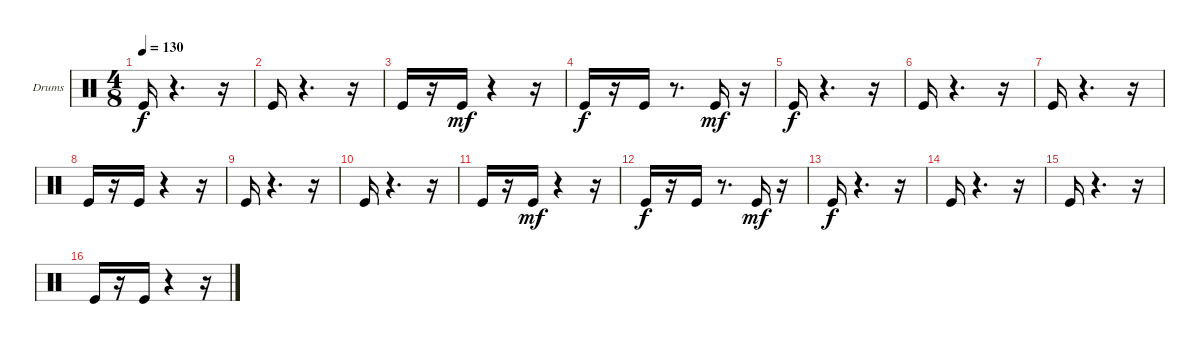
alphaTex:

\bracketExtendMode groupsimilarinstruments
\firstSystemTrackNameOrientation horizontal
\otherSystemsTrackNameOrientation horizontal
\track ("Ударные" "Drums") {instrument percussion}
\staff {score}
\articulation defaults
\ts (4 8)
\tempo 130
\clef neutral
\ks c "Kick (hit)".16{dy f}
r.4{d} r.16 |
"Kick (hit)".16 r.4{d} r.16 |
"Kick (hit)".16 r.16 "Kick (hit)".16{dy mf} r.4 r.16 |
"Kick (hit)".16{dy f} r.16 "Kick (hit)".16 r.8{d} "Kick (hit)".16{dy mf} r.16 |
"Kick (hit)".16{dy f} r.4{d} r.16 |
"Kick (hit)".16 r.4{d} r.16 |
"Kick (hit)".16 r.4{d} r.16 |
"Kick (hit)".16 r.16 "Kick (hit)".16 r.4 r.16 |
"Kick (hit)".16 r.4{d} r.16 |
"Kick (hit)".16 r.4{d} r.16 |
"Kick (hit)".16 r.16 "Kick (hit)".16{dy mf} r.4 r.16 |
"Kick (hit)".16{dy f} r.16 "Kick (hit)".16 r.8{d} "Kick (hit)".16{dy mf} r.16 |
"Kick (hit)".16{dy f} r.4{d} r.16 |
"Kick (hit)".16 r.4{d} r.16 |
"Kick (hit)".16 r.4{d} r.16 |
"Kick (hit)".16 r.16 "Kick (hit)".16 r.4 r.16
